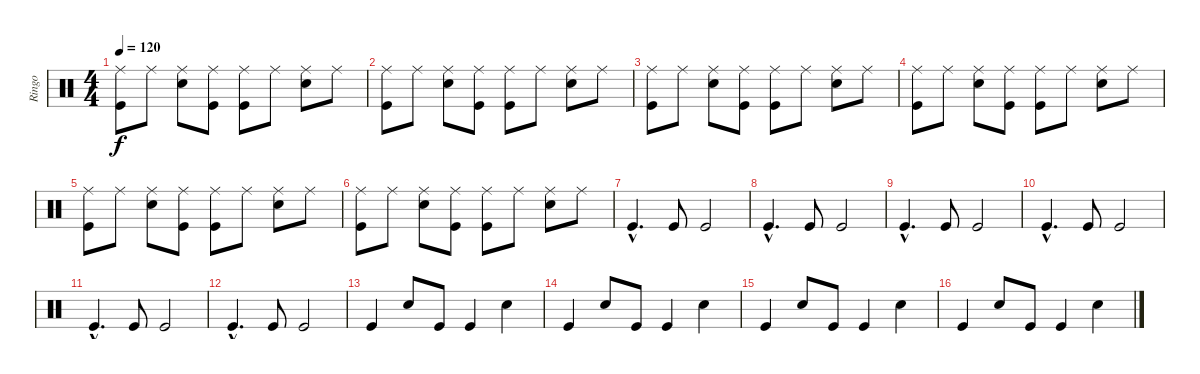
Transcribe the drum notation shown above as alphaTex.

\track ("Ringo" "Ringo") {instrument percussion}
\staff {score}
\articulation defaults
\ts (4 4)
\tempo 120
\clef neutral
\ks c
("Ride (middle)" "Kick (hit)").8{dy f} "Ride (middle)".8 ("Ride (middle)" "Snare (hit) 2").8 ("Ride (middle)" "Kick (hit)").8 ("Ride (middle)" "Kick (hit)").8 "Ride (middle)".8 ("Ride (middle)" "Snare (hit) 2").8 "Ride (middle)".8 |
("Ride (middle)" "Kick (hit)").8 "Ride (middle)".8 ("Ride (middle)" "Snare (hit) 2").8 ("Ride (middle)" "Kick (hit)").8 ("Ride (middle)" "Kick (hit)").8 "Ride (middle)".8 ("Ride (middle)" "Snare (hit) 2").8 "Ride (middle)".8 |
("Ride (middle)" "Kick (hit)").8 "Ride (middle)".8 ("Ride (middle)" "Snare (hit) 2").8 ("Ride (middle)" "Kick (hit)").8 ("Ride (middle)" "Kick (hit)").8 "Ride (middle)".8 ("Ride (middle)" "Snare (hit) 2").8 "Ride (middle)".8 |
("Ride (middle)" "Kick (hit)").8 "Ride (middle)".8 ("Ride (middle)" "Snare (hit) 2").8 ("Ride (middle)" "Kick (hit)").8 ("Ride (middle)" "Kick (hit)").8 "Ride (middle)".8 ("Ride (middle)" "Snare (hit) 2").8 "Ride (middle)".8 |
("Ride (middle)" "Kick (hit)").8 "Ride (middle)".8 ("Ride (middle)" "Snare (hit) 2").8 ("Ride (middle)" "Kick (hit)").8 ("Ride (middle)" "Kick (hit)").8 "Ride (middle)".8 ("Ride (middle)" "Snare (hit) 2").8 "Ride (middle)".8 |
("Ride (middle)" "Kick (hit)").8 "Ride (middle)".8 ("Ride (middle)" "Snare (hit) 2").8 ("Ride (middle)" "Kick (hit)").8 ("Ride (middle)" "Kick (hit)").8 "Ride (middle)".8 ("Ride (middle)" "Snare (hit) 2").8 "Ride (middle)".8 |
"Kick (hit)"{hac}.4{d} "Kick (hit)".8 "Kick (hit)".2 |
"Kick (hit)"{hac}.4{d} "Kick (hit)".8 "Kick (hit)".2 |
"Kick (hit)"{hac}.4{d} "Kick (hit)".8 "Kick (hit)".2 |
"Kick (hit)"{hac}.4{d} "Kick (hit)".8 "Kick (hit)".2 |
"Kick (hit)"{hac}.4{d} "Kick (hit)".8 "Kick (hit)".2 |
"Kick (hit)"{hac}.4{d} "Kick (hit)".8 "Kick (hit)".2 |
"Kick (hit)".4 "Snare (hit) 2".8 "Kick (hit)".8 "Kick (hit)".4 "Snare (hit) 2".4 |
"Kick (hit)".4 "Snare (hit) 2".8 "Kick (hit)".8 "Kick (hit)".4 "Snare (hit) 2".4 |
"Kick (hit)".4 "Snare (hit) 2".8 "Kick (hit)".8 "Kick (hit)".4 "Snare (hit) 2".4 |
"Kick (hit)".4 "Snare (hit) 2".8 "Kick (hit)".8 "Kick (hit)".4 "Snare (hit) 2".4
